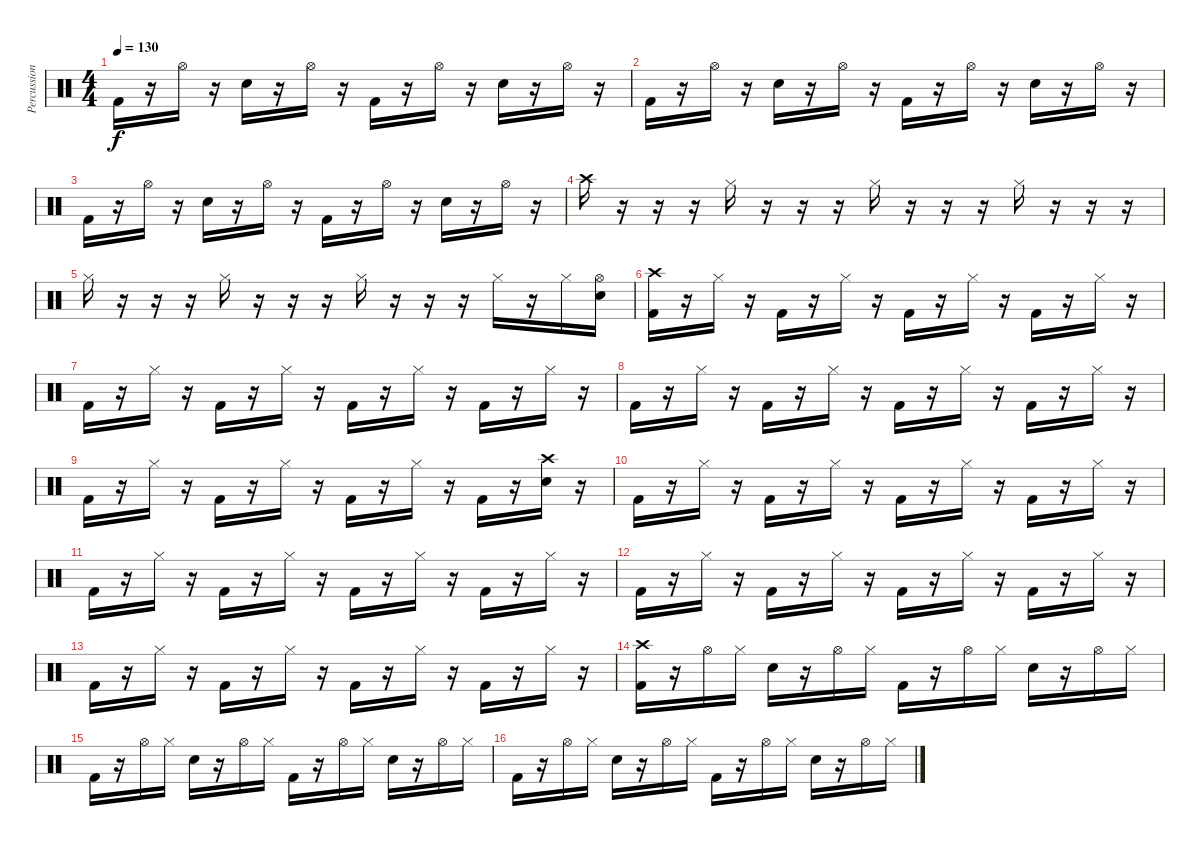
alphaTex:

\track ("Percussion" "Percussion") {instrument percussion}
\staff {score}
\articulation defaults
\ts (4 4)
\tempo 130
\clef neutral
\ks c "Kick (hit) 2".16{dy f}
r.16 "Hi-Hat (open)".16 r.16 "Snare (hit) 2".16 r.16 "Hi-Hat (open)".16 r.16 "Kick (hit) 2".16 r.16 "Hi-Hat (open)".16 r.16 "Snare (hit) 2".16 r.16 "Hi-Hat (open)".16 r.16 |
"Kick (hit) 2".16 r.16 "Hi-Hat (open)".16 r.16 "Snare (hit) 2".16 r.16 "Hi-Hat (open)".16 r.16 "Kick (hit) 2".16 r.16 "Hi-Hat (open)".16 r.16 "Snare (hit) 2".16 r.16 "Hi-Hat (open)".16 r.16 |
"Kick (hit) 2".16 r.16 "Hi-Hat (open)".16 r.16 "Snare (hit) 2".16 r.16 "Hi-Hat (open)".16 r.16 "Kick (hit) 2".16 r.16 "Hi-Hat (open)".16 r.16 "Snare (hit) 2".16 r.16 "Hi-Hat (open)".16 r.16 |
"Crash high (hit)".16 r.16 r.16 r.16 "Hi-Hat (closed)".16 r.16 r.16 r.16 "Hi-Hat (closed)".16 r.16 r.16 r.16 "Hi-Hat (closed)".16 r.16 r.16 r.16 |
"Hi-Hat (closed)".16 r.16 r.16 r.16 "Hi-Hat (closed)".16 r.16 r.16 r.16 "Hi-Hat (closed)".16 r.16 r.16 r.16 "Hi-Hat (closed)".16 r.16 "Hi-Hat (closed)".16 ("Hi-Hat (open)" "Snare (hit) 2").16 |
("Crash high (hit)" "Kick (hit) 2").16 r.16 "Hi-Hat (closed)".16 r.16 "Kick (hit) 2".16 r.16 "Hi-Hat (closed)".16 r.16 "Kick (hit) 2".16 r.16 "Hi-Hat (closed)".16 r.16 "Kick (hit) 2".16 r.16 "Hi-Hat (closed)".16 r.16 |
"Kick (hit) 2".16 r.16 "Hi-Hat (closed)".16 r.16 "Kick (hit) 2".16 r.16 "Hi-Hat (closed)".16 r.16 "Kick (hit) 2".16 r.16 "Hi-Hat (closed)".16 r.16 "Kick (hit) 2".16 r.16 "Hi-Hat (closed)".16 r.16 |
"Kick (hit) 2".16 r.16 "Hi-Hat (closed)".16 r.16 "Kick (hit) 2".16 r.16 "Hi-Hat (closed)".16 r.16 "Kick (hit) 2".16 r.16 "Hi-Hat (closed)".16 r.16 "Kick (hit) 2".16 r.16 "Hi-Hat (closed)".16 r.16 |
"Kick (hit) 2".16 r.16 "Hi-Hat (closed)".16 r.16 "Kick (hit) 2".16 r.16 "Hi-Hat (closed)".16 r.16 "Kick (hit) 2".16 r.16 "Hi-Hat (closed)".16 r.16 "Kick (hit) 2".16 r.16 ("Crash high (hit)" "Snare (hit) 2").16 r.16 |
"Kick (hit) 2".16 r.16 "Hi-Hat (closed)".16 r.16 "Kick (hit) 2".16 r.16 "Hi-Hat (closed)".16 r.16 "Kick (hit) 2".16 r.16 "Hi-Hat (closed)".16 r.16 "Kick (hit) 2".16 r.16 "Hi-Hat (closed)".16 r.16 |
"Kick (hit) 2".16 r.16 "Hi-Hat (closed)".16 r.16 "Kick (hit) 2".16 r.16 "Hi-Hat (closed)".16 r.16 "Kick (hit) 2".16 r.16 "Hi-Hat (closed)".16 r.16 "Kick (hit) 2".16 r.16 "Hi-Hat (closed)".16 r.16 |
"Kick (hit) 2".16 r.16 "Hi-Hat (closed)".16 r.16 "Kick (hit) 2".16 r.16 "Hi-Hat (closed)".16 r.16 "Kick (hit) 2".16 r.16 "Hi-Hat (closed)".16 r.16 "Kick (hit) 2".16 r.16 "Hi-Hat (closed)".16 r.16 |
"Kick (hit) 2".16 r.16 "Hi-Hat (closed)".16 r.16 "Kick (hit) 2".16 r.16 "Hi-Hat (closed)".16 r.16 "Kick (hit) 2".16 r.16 "Hi-Hat (closed)".16 r.16 "Kick (hit) 2".16 r.16 "Hi-Hat (closed)".16 r.16 |
("Crash high (hit)" "Kick (hit) 2").16 r.16 "Hi-Hat (open)".16 "Hi-Hat (closed)".16 "Snare (hit) 2".16 r.16 "Hi-Hat (open)".16 "Hi-Hat (closed)".16 "Kick (hit) 2".16 r.16 "Hi-Hat (open)".16 "Hi-Hat (closed)".16 "Snare (hit) 2".16 r.16 "Hi-Hat (open)".16 "Hi-Hat (closed)".16 |
"Kick (hit) 2".16 r.16 "Hi-Hat (open)".16 "Hi-Hat (closed)".16 "Snare (hit) 2".16 r.16 "Hi-Hat (open)".16 "Hi-Hat (closed)".16 "Kick (hit) 2".16 r.16 "Hi-Hat (open)".16 "Hi-Hat (closed)".16 "Snare (hit) 2".16 r.16 "Hi-Hat (open)".16 "Hi-Hat (closed)".16 |
"Kick (hit) 2".16 r.16 "Hi-Hat (open)".16 "Hi-Hat (closed)".16 "Snare (hit) 2".16 r.16 "Hi-Hat (open)".16 "Hi-Hat (closed)".16 "Kick (hit) 2".16 r.16 "Hi-Hat (open)".16 "Hi-Hat (closed)".16 "Snare (hit) 2".16 r.16 "Hi-Hat (open)".16 "Hi-Hat (closed)".16
